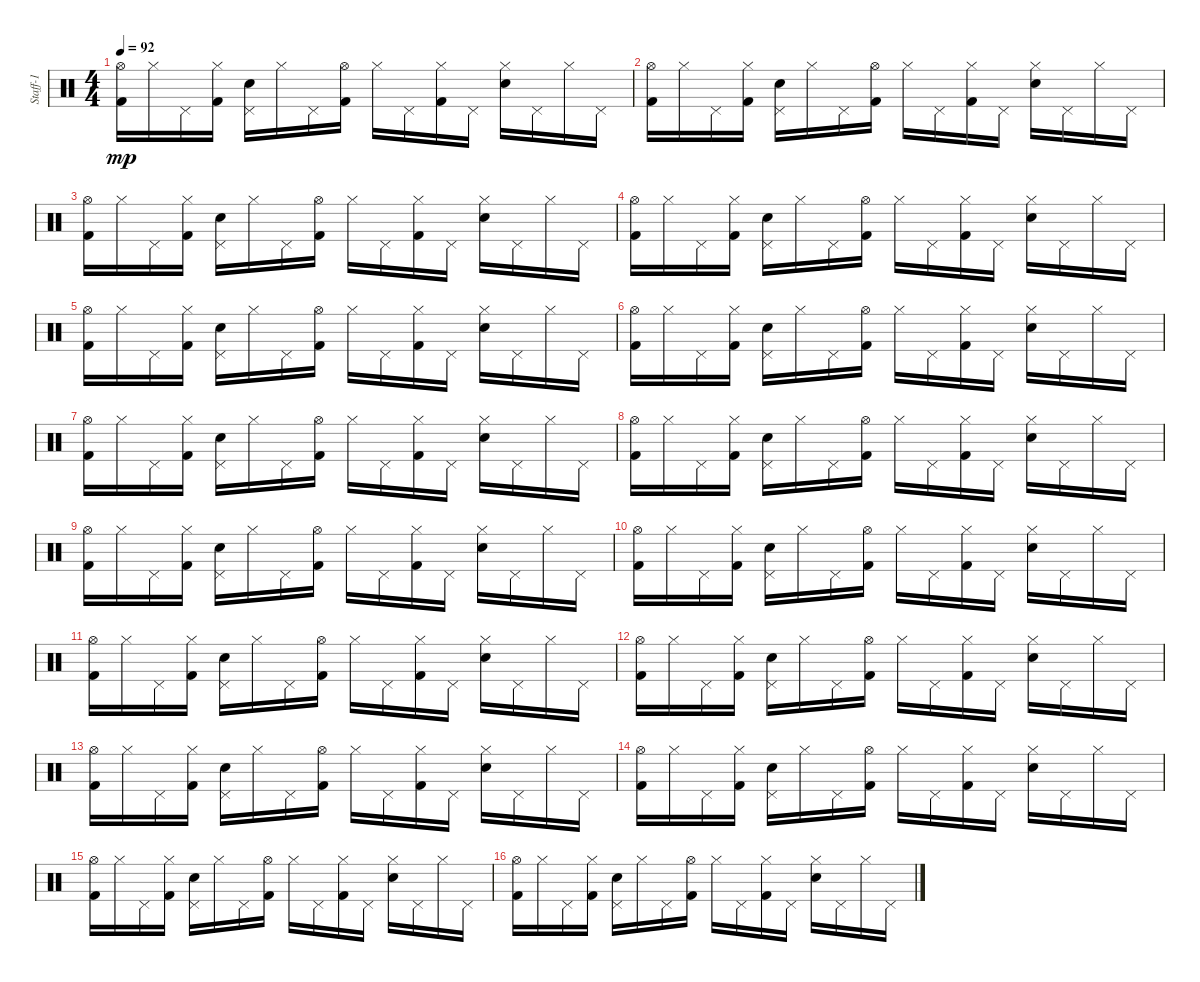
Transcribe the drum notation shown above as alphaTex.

\track ("Staff-1" "Staff-1") {instrument percussion}
\staff {score}
\articulation defaults
\ts (4 4)
\tempo 92
\clef neutral
\ks c
("Kick (hit) 2" "Hi-Hat (open)").16{dy mp} "Hi-Hat (closed)".16 "Pedal Hi-Hat (hit)".16 ("Kick (hit) 2" "Hi-Hat (closed)").16 ("Snare (hit) 2" "Pedal Hi-Hat (hit)").16 "Hi-Hat (closed)".16 "Pedal Hi-Hat (hit)".16 ("Kick (hit) 2" "Hi-Hat (open)").16 "Hi-Hat (closed)".16 "Pedal Hi-Hat (hit)".16 ("Kick (hit) 2" "Hi-Hat (closed)").16 "Pedal Hi-Hat (hit)".16 ("Snare (hit) 2" "Hi-Hat (closed)").16 "Pedal Hi-Hat (hit)".16 "Hi-Hat (closed)".16 "Pedal Hi-Hat (hit)".16 |
("Kick (hit) 2" "Hi-Hat (open)").16 "Hi-Hat (closed)".16 "Pedal Hi-Hat (hit)".16 ("Kick (hit) 2" "Hi-Hat (closed)").16 ("Snare (hit) 2" "Pedal Hi-Hat (hit)").16 "Hi-Hat (closed)".16 "Pedal Hi-Hat (hit)".16 ("Kick (hit) 2" "Hi-Hat (open)").16 "Hi-Hat (closed)".16 "Pedal Hi-Hat (hit)".16 ("Kick (hit) 2" "Hi-Hat (closed)").16 "Pedal Hi-Hat (hit)".16 ("Snare (hit) 2" "Hi-Hat (closed)").16 "Pedal Hi-Hat (hit)".16 "Hi-Hat (closed)".16 "Pedal Hi-Hat (hit)".16 |
("Kick (hit) 2" "Hi-Hat (open)").16 "Hi-Hat (closed)".16 "Pedal Hi-Hat (hit)".16 ("Kick (hit) 2" "Hi-Hat (closed)").16 ("Snare (hit) 2" "Pedal Hi-Hat (hit)").16 "Hi-Hat (closed)".16 "Pedal Hi-Hat (hit)".16 ("Kick (hit) 2" "Hi-Hat (open)").16 "Hi-Hat (closed)".16 "Pedal Hi-Hat (hit)".16 ("Kick (hit) 2" "Hi-Hat (closed)").16 "Pedal Hi-Hat (hit)".16 ("Snare (hit) 2" "Hi-Hat (closed)").16 "Pedal Hi-Hat (hit)".16 "Hi-Hat (closed)".16 "Pedal Hi-Hat (hit)".16 |
("Kick (hit) 2" "Hi-Hat (open)").16 "Hi-Hat (closed)".16 "Pedal Hi-Hat (hit)".16 ("Kick (hit) 2" "Hi-Hat (closed)").16 ("Snare (hit) 2" "Pedal Hi-Hat (hit)").16 "Hi-Hat (closed)".16 "Pedal Hi-Hat (hit)".16 ("Kick (hit) 2" "Hi-Hat (open)").16 "Hi-Hat (closed)".16 "Pedal Hi-Hat (hit)".16 ("Kick (hit) 2" "Hi-Hat (closed)").16 "Pedal Hi-Hat (hit)".16 ("Snare (hit) 2" "Hi-Hat (closed)").16 "Pedal Hi-Hat (hit)".16 "Hi-Hat (closed)".16 "Pedal Hi-Hat (hit)".16 |
("Kick (hit) 2" "Hi-Hat (open)").16 "Hi-Hat (closed)".16 "Pedal Hi-Hat (hit)".16 ("Kick (hit) 2" "Hi-Hat (closed)").16 ("Snare (hit) 2" "Pedal Hi-Hat (hit)").16 "Hi-Hat (closed)".16 "Pedal Hi-Hat (hit)".16 ("Kick (hit) 2" "Hi-Hat (open)").16 "Hi-Hat (closed)".16 "Pedal Hi-Hat (hit)".16 ("Kick (hit) 2" "Hi-Hat (closed)").16 "Pedal Hi-Hat (hit)".16 ("Snare (hit) 2" "Hi-Hat (closed)").16 "Pedal Hi-Hat (hit)".16 "Hi-Hat (closed)".16 "Pedal Hi-Hat (hit)".16 |
("Kick (hit) 2" "Hi-Hat (open)").16 "Hi-Hat (closed)".16 "Pedal Hi-Hat (hit)".16 ("Kick (hit) 2" "Hi-Hat (closed)").16 ("Snare (hit) 2" "Pedal Hi-Hat (hit)").16 "Hi-Hat (closed)".16 "Pedal Hi-Hat (hit)".16 ("Kick (hit) 2" "Hi-Hat (open)").16 "Hi-Hat (closed)".16 "Pedal Hi-Hat (hit)".16 ("Kick (hit) 2" "Hi-Hat (closed)").16 "Pedal Hi-Hat (hit)".16 ("Snare (hit) 2" "Hi-Hat (closed)").16 "Pedal Hi-Hat (hit)".16 "Hi-Hat (closed)".16 "Pedal Hi-Hat (hit)".16 |
("Kick (hit) 2" "Hi-Hat (open)").16 "Hi-Hat (closed)".16 "Pedal Hi-Hat (hit)".16 ("Kick (hit) 2" "Hi-Hat (closed)").16 ("Snare (hit) 2" "Pedal Hi-Hat (hit)").16 "Hi-Hat (closed)".16 "Pedal Hi-Hat (hit)".16 ("Kick (hit) 2" "Hi-Hat (open)").16 "Hi-Hat (closed)".16 "Pedal Hi-Hat (hit)".16 ("Kick (hit) 2" "Hi-Hat (closed)").16 "Pedal Hi-Hat (hit)".16 ("Snare (hit) 2" "Hi-Hat (closed)").16 "Pedal Hi-Hat (hit)".16 "Hi-Hat (closed)".16 "Pedal Hi-Hat (hit)".16 |
("Kick (hit) 2" "Hi-Hat (open)").16 "Hi-Hat (closed)".16 "Pedal Hi-Hat (hit)".16 ("Kick (hit) 2" "Hi-Hat (closed)").16 ("Snare (hit) 2" "Pedal Hi-Hat (hit)").16 "Hi-Hat (closed)".16 "Pedal Hi-Hat (hit)".16 ("Kick (hit) 2" "Hi-Hat (open)").16 "Hi-Hat (closed)".16 "Pedal Hi-Hat (hit)".16 ("Kick (hit) 2" "Hi-Hat (closed)").16 "Pedal Hi-Hat (hit)".16 ("Snare (hit) 2" "Hi-Hat (closed)").16 "Pedal Hi-Hat (hit)".16 "Hi-Hat (closed)".16 "Pedal Hi-Hat (hit)".16 |
("Kick (hit) 2" "Hi-Hat (open)").16 "Hi-Hat (closed)".16 "Pedal Hi-Hat (hit)".16 ("Kick (hit) 2" "Hi-Hat (closed)").16 ("Snare (hit) 2" "Pedal Hi-Hat (hit)").16 "Hi-Hat (closed)".16 "Pedal Hi-Hat (hit)".16 ("Kick (hit) 2" "Hi-Hat (open)").16 "Hi-Hat (closed)".16 "Pedal Hi-Hat (hit)".16 ("Kick (hit) 2" "Hi-Hat (closed)").16 "Pedal Hi-Hat (hit)".16 ("Snare (hit) 2" "Hi-Hat (closed)").16 "Pedal Hi-Hat (hit)".16 "Hi-Hat (closed)".16 "Pedal Hi-Hat (hit)".16 |
("Kick (hit) 2" "Hi-Hat (open)").16 "Hi-Hat (closed)".16 "Pedal Hi-Hat (hit)".16 ("Kick (hit) 2" "Hi-Hat (closed)").16 ("Snare (hit) 2" "Pedal Hi-Hat (hit)").16 "Hi-Hat (closed)".16 "Pedal Hi-Hat (hit)".16 ("Kick (hit) 2" "Hi-Hat (open)").16 "Hi-Hat (closed)".16 "Pedal Hi-Hat (hit)".16 ("Kick (hit) 2" "Hi-Hat (closed)").16 "Pedal Hi-Hat (hit)".16 ("Snare (hit) 2" "Hi-Hat (closed)").16 "Pedal Hi-Hat (hit)".16 "Hi-Hat (closed)".16 "Pedal Hi-Hat (hit)".16 |
("Kick (hit) 2" "Hi-Hat (open)").16 "Hi-Hat (closed)".16 "Pedal Hi-Hat (hit)".16 ("Kick (hit) 2" "Hi-Hat (closed)").16 ("Snare (hit) 2" "Pedal Hi-Hat (hit)").16 "Hi-Hat (closed)".16 "Pedal Hi-Hat (hit)".16 ("Kick (hit) 2" "Hi-Hat (open)").16 "Hi-Hat (closed)".16 "Pedal Hi-Hat (hit)".16 ("Kick (hit) 2" "Hi-Hat (closed)").16 "Pedal Hi-Hat (hit)".16 ("Snare (hit) 2" "Hi-Hat (closed)").16 "Pedal Hi-Hat (hit)".16 "Hi-Hat (closed)".16 "Pedal Hi-Hat (hit)".16 |
("Kick (hit) 2" "Hi-Hat (open)").16 "Hi-Hat (closed)".16 "Pedal Hi-Hat (hit)".16 ("Kick (hit) 2" "Hi-Hat (closed)").16 ("Snare (hit) 2" "Pedal Hi-Hat (hit)").16 "Hi-Hat (closed)".16 "Pedal Hi-Hat (hit)".16 ("Kick (hit) 2" "Hi-Hat (open)").16 "Hi-Hat (closed)".16 "Pedal Hi-Hat (hit)".16 ("Kick (hit) 2" "Hi-Hat (closed)").16 "Pedal Hi-Hat (hit)".16 ("Snare (hit) 2" "Hi-Hat (closed)").16 "Pedal Hi-Hat (hit)".16 "Hi-Hat (closed)".16 "Pedal Hi-Hat (hit)".16 |
("Kick (hit) 2" "Hi-Hat (open)").16 "Hi-Hat (closed)".16 "Pedal Hi-Hat (hit)".16 ("Kick (hit) 2" "Hi-Hat (closed)").16 ("Snare (hit) 2" "Pedal Hi-Hat (hit)").16 "Hi-Hat (closed)".16 "Pedal Hi-Hat (hit)".16 ("Kick (hit) 2" "Hi-Hat (open)").16 "Hi-Hat (closed)".16 "Pedal Hi-Hat (hit)".16 ("Kick (hit) 2" "Hi-Hat (closed)").16 "Pedal Hi-Hat (hit)".16 ("Snare (hit) 2" "Hi-Hat (closed)").16 "Pedal Hi-Hat (hit)".16 "Hi-Hat (closed)".16 "Pedal Hi-Hat (hit)".16 |
("Kick (hit) 2" "Hi-Hat (open)").16 "Hi-Hat (closed)".16 "Pedal Hi-Hat (hit)".16 ("Kick (hit) 2" "Hi-Hat (closed)").16 ("Snare (hit) 2" "Pedal Hi-Hat (hit)").16 "Hi-Hat (closed)".16 "Pedal Hi-Hat (hit)".16 ("Kick (hit) 2" "Hi-Hat (open)").16 "Hi-Hat (closed)".16 "Pedal Hi-Hat (hit)".16 ("Kick (hit) 2" "Hi-Hat (closed)").16 "Pedal Hi-Hat (hit)".16 ("Snare (hit) 2" "Hi-Hat (closed)").16 "Pedal Hi-Hat (hit)".16 "Hi-Hat (closed)".16 "Pedal Hi-Hat (hit)".16 |
("Kick (hit) 2" "Hi-Hat (open)").16 "Hi-Hat (closed)".16 "Pedal Hi-Hat (hit)".16 ("Kick (hit) 2" "Hi-Hat (closed)").16 ("Snare (hit) 2" "Pedal Hi-Hat (hit)").16 "Hi-Hat (closed)".16 "Pedal Hi-Hat (hit)".16 ("Kick (hit) 2" "Hi-Hat (open)").16 "Hi-Hat (closed)".16 "Pedal Hi-Hat (hit)".16 ("Kick (hit) 2" "Hi-Hat (closed)").16 "Pedal Hi-Hat (hit)".16 ("Snare (hit) 2" "Hi-Hat (closed)").16 "Pedal Hi-Hat (hit)".16 "Hi-Hat (closed)".16 "Pedal Hi-Hat (hit)".16 |
("Kick (hit) 2" "Hi-Hat (open)").16 "Hi-Hat (closed)".16 "Pedal Hi-Hat (hit)".16 ("Kick (hit) 2" "Hi-Hat (closed)").16 ("Snare (hit) 2" "Pedal Hi-Hat (hit)").16 "Hi-Hat (closed)".16 "Pedal Hi-Hat (hit)".16 ("Kick (hit) 2" "Hi-Hat (open)").16 "Hi-Hat (closed)".16 "Pedal Hi-Hat (hit)".16 ("Kick (hit) 2" "Hi-Hat (closed)").16 "Pedal Hi-Hat (hit)".16 ("Snare (hit) 2" "Hi-Hat (closed)").16 "Pedal Hi-Hat (hit)".16 "Hi-Hat (closed)".16 "Pedal Hi-Hat (hit)".16
